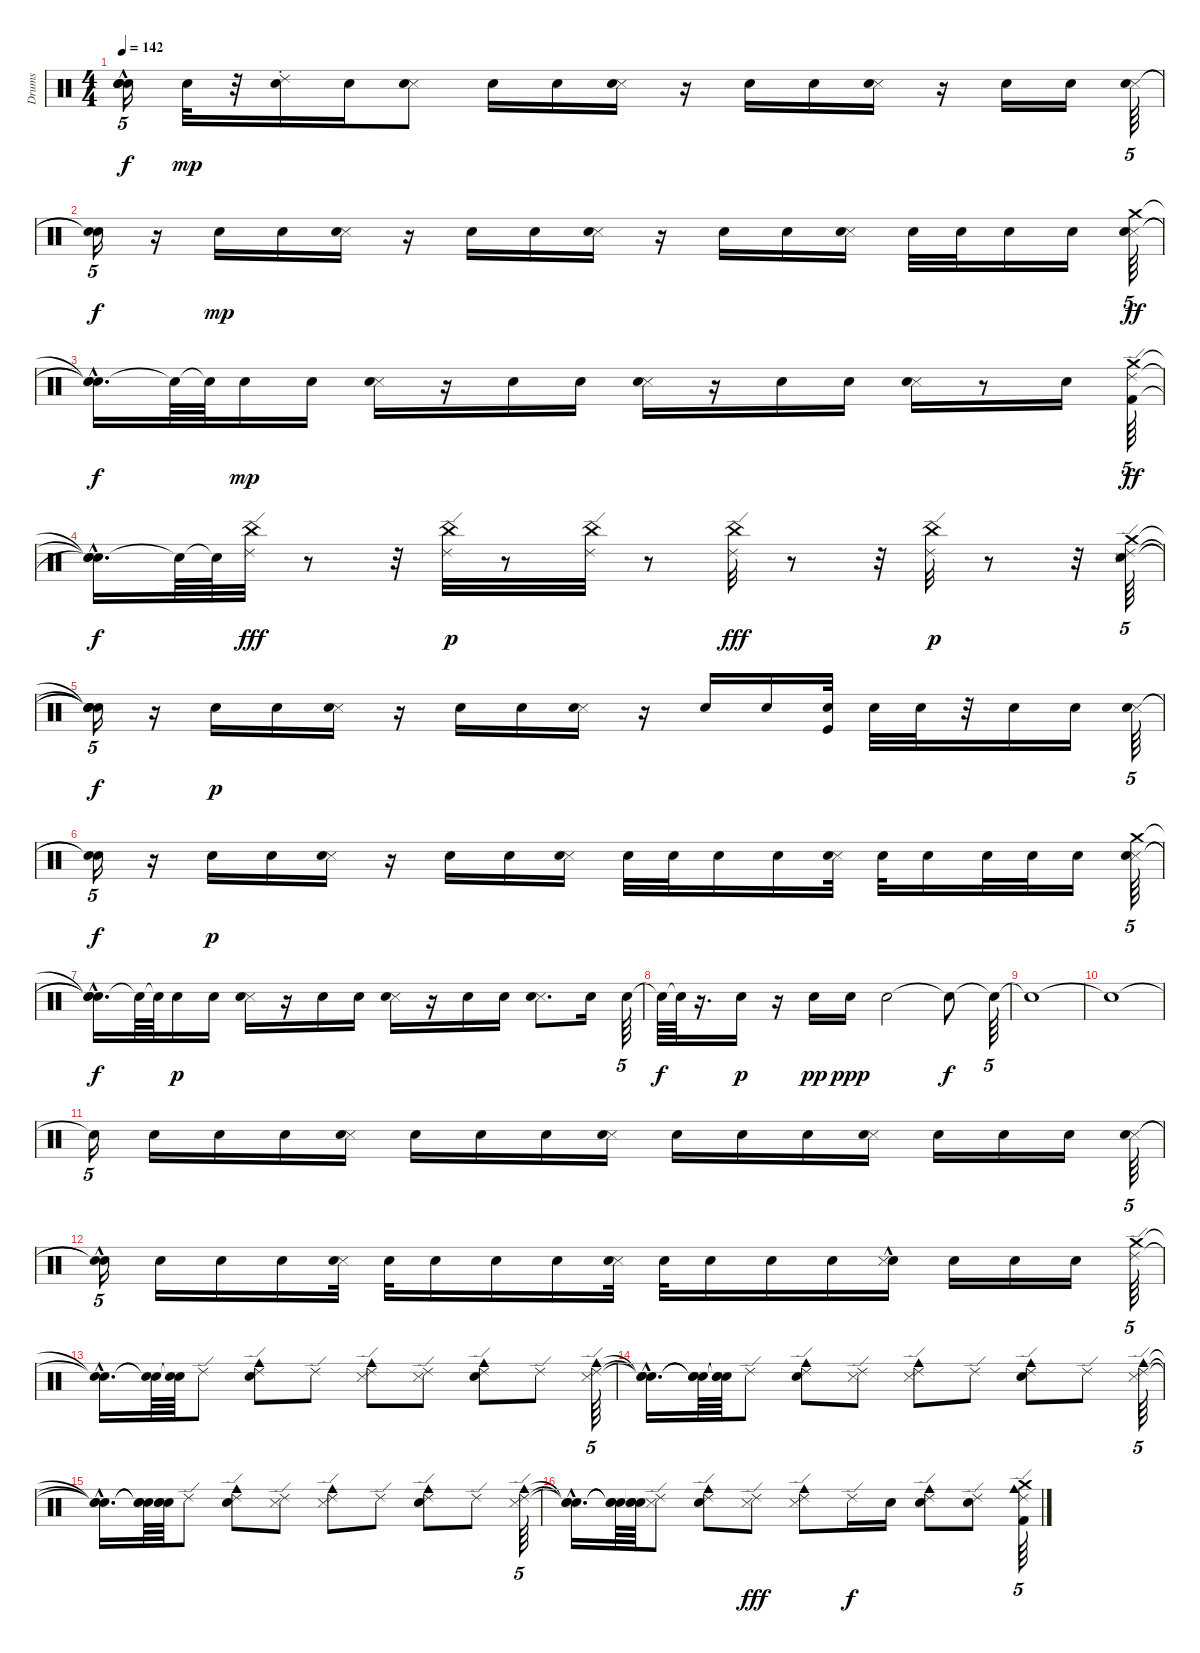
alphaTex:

\track ("Drums" "Drums") {instrument percussion}
\staff {score}
\articulation defaults
\ts (4 4)
\tempo 142
\clef neutral
\ks c
("Snare (hit)"{hac t} "Snare (hit)"{hac t} "Snare (hit)"{hac t} "Snare (hit)"{t}).16{tu (5 4) dy f} "Snare (hit) 2".32{dy mp} r.32 ("Snare (hit) 2" "Ride (choke) 2").16 "Snare (hit) 2".16 ("Metronome (hit)" "Snare (hit) 2").8 "Snare (hit) 2".16 "Snare (hit) 2".16 ("Metronome (hit)" "Snare (hit) 2").16 r.16 "Snare (hit) 2".16 "Snare (hit) 2".16 ("Metronome (hit)" "Snare (hit) 2").16 r.16 "Snare (hit) 2".16 "Snare (hit) 2".16 ("Metronome (hit)" "Snare (hit) 2").64{tu (5 4)} |
("Snare (hit)"{t} "Snare (hit)"{t}).16{tu (5 4) dy f} r.16 "Snare (hit) 2".16{dy mp} "Snare (hit) 2".16 ("Metronome (hit)" "Snare (hit) 2").16 r.16 "Snare (hit) 2".16 "Snare (hit) 2".16 ("Metronome (hit)" "Snare (hit) 2").16 r.16 "Snare (hit) 2".16 "Snare (hit) 2".16 ("Metronome (hit)" "Snare (hit) 2").16 "Snare (hit) 2".32 "Snare (hit) 2".32 "Snare (hit) 2".16 "Snare (hit) 2".16 ("Metronome (hit)" "Snare (hit) 2" "Crash medium (hit)").64{tu (5 4) dy ff} |
("Snare (hit)"{t} "Snare (hit)"{t} "Snare (hit)"{hac t}).16{d dy f} "Snare (hit)"{t}.64 "Snare (hit)"{t}.64 "Snare (hit) 2".16{dy mp} "Snare (hit) 2".16 ("Metronome (hit)" "Snare (hit) 2").16 r.16 "Snare (hit) 2".16 "Snare (hit) 2".16 ("Metronome (hit)" "Snare (hit) 2").16 r.16 "Snare (hit) 2".16 "Snare (hit) 2".16 ("Metronome (hit)" "Snare (hit) 2").16 r.8 "Snare (hit) 2".16 ("Crash medium (hit)" "Kick (hit) 2" "Ride (edge) 2").64{tu (5 4) dy ff} |
("Snare (hit)"{t} "Snare (hit)"{t} "Snare (hit)"{hac t}).16{d dy f} "Snare (hit)"{t}.64 "Snare (hit)"{t}.64 ("China (hit)" "Ride (edge) 2").32{dy fff} r.8 r.32 ("China (hit)" "Ride (edge) 2").32{dy p} r.8 ("China (hit)" "Ride (edge) 2").32 r.8 ("China (hit)" "Ride (edge) 2").32{dy fff} r.8 r.32 ("China (hit)" "Ride (edge) 2").32{dy p} r.8 r.32 ("Metronome (hit)" "Snare (hit) 2" "Crash medium (hit)" "Ride (edge) 2").64{tu (5 4)} |
("Snare (hit)"{t} "Snare (hit)"{t} "Snare (hit)"{t} "Snare (hit)"{t}).16{tu (5 4) dy f} r.16 "Snare (hit) 2".16{dy p} "Snare (hit) 2".16 ("Metronome (hit)" "Snare (hit) 2").16 r.16 "Snare (hit) 2".16 "Snare (hit) 2".16 ("Metronome (hit)" "Snare (hit) 2").16 r.16 "Snare (hit) 2".16 "Snare (hit) 2".16 ("Snare (hit) 2" "Kick (hit)").32 "Snare (hit) 2".32 "Snare (hit) 2".32 r.32 "Snare (hit) 2".16 "Snare (hit) 2".16 ("Metronome (hit)" "Snare (hit) 2").64{tu (5 4)} |
("Snare (hit)"{t} "Snare (hit)"{t}).16{tu (5 4) dy f} r.16 "Snare (hit) 2".16{dy p} "Snare (hit) 2".16 ("Metronome (hit)" "Snare (hit) 2").16 r.16 "Snare (hit) 2".16 "Snare (hit) 2".16 ("Metronome (hit)" "Snare (hit) 2").16 "Snare (hit) 2".32 "Snare (hit) 2".32 "Snare (hit) 2".16 "Snare (hit) 2".16 ("Metronome (hit)" "Snare (hit) 2").32 "Snare (hit) 2".32 "Snare (hit) 2".16 "Snare (hit) 2".32 "Snare (hit) 2".32 "Snare (hit) 2".16 ("Metronome (hit)" "Snare (hit) 2" "Crash medium (hit)").64{tu (5 4)} |
("Snare (hit)"{t} "Snare (hit)"{t} "Snare (hit)"{hac t}).16{d dy f} "Snare (hit)"{t}.64 "Snare (hit)"{t}.64 "Snare (hit) 2".16{dy p} "Snare (hit) 2".16 ("Metronome (hit)" "Snare (hit) 2").16 r.16 "Snare (hit) 2".16 "Snare (hit) 2".16 ("Metronome (hit)" "Snare (hit) 2").16 r.16 "Snare (hit) 2".16 "Snare (hit) 2".16 ("Metronome (hit)" "Snare (hit) 2").8{d} "Snare (hit) 2".16 "Snare (hit) 2".64{tu (5 4)} |
"Snare (hit)"{t}.64{dy f} "Snare (hit)"{t}.64 r.16{d} "Snare (hit) 2".16{dy p} r.16 "Snare (hit) 2".16{dy pp} "Snare (hit) 2".16{dy ppp} "Snare (hit) 2".2 "Snare (hit)"{t}.8{dy f} "Snare (hit)"{t}.64{tu (5 4)} |
"Snare (hit)"{t}.1 |
"Snare (hit)"{t}.1 |
"Snare (hit)"{t}.16{tu (5 4)} "Snare (hit) 2".16{volume 0} "Snare (hit) 2".16{volume 1} "Snare (hit) 2".16{volume 1} ("Metronome (hit)" "Snare (hit) 2").16{volume 2} "Snare (hit) 2".16{volume 2} "Snare (hit) 2".16{volume 3} "Snare (hit) 2".16{volume 3} ("Metronome (hit)" "Snare (hit) 2").16{volume 4} "Snare (hit) 2".16{volume 4} "Snare (hit) 2".16{volume 5} "Snare (hit) 2".16{volume 5} ("Metronome (hit)" "Snare (hit) 2").16{volume 6} "Snare (hit) 2".16{volume 6} "Snare (hit) 2".16{volume 7} "Snare (hit) 2".16{volume 7} ("Metronome (hit)" "Snare (hit) 2").64{tu (5 4) volume 8} |
("Snare (hit)"{hac t} "Snare (hit)"{t}).16{tu (5 4)} "Snare (hit) 2".16{volume 8} "Snare (hit) 2".16{volume 8} "Snare (hit) 2".16{volume 9} ("Metronome (hit)" "Snare (hit) 2").32{volume 10} "Snare (hit) 2".32{volume 10} "Snare (hit) 2".16{volume 10} "Snare (hit) 2".16{volume 10} "Snare (hit) 2".16{volume 11} ("Metronome (hit)" "Snare (hit) 2").32{volume 11} "Snare (hit) 2".32{volume 12} "Snare (hit) 2".16{volume 12} "Snare (hit) 2".16{volume 12} "Snare (hit) 2".16{volume 13} ("Snare (hit) 2" "Metronome (hit)"{hac}).16{volume 13} "Snare (hit) 2".16{volume 14} "Snare (hit) 2".16{volume 14} "Snare (hit) 2".16{volume 15} ("Crash medium (hit)" "Ride (edge) 2").64{tu (5 4) volume 15} |
("Snare (hit)"{hac t} "Snare (hit)"{hac t}).16{d} ("Snare (hit)"{t} "Snare (hit)"{t}).64 ("Snare (hit)"{t} "Snare (hit)"{t}).64 "Ride (edge) 2".8 ("Cowbell medium (hit)" "Ride (edge) 2" "Snare (hit) 2").8 "Ride (edge) 2".8 ("Cowbell medium (hit)" "Ride (edge) 2" "Metronome (hit)").8 ("Metronome (hit)" "Ride (edge) 2").8 ("Cowbell medium (hit)" "Ride (edge) 2" "Snare (hit) 2").8 "Ride (edge) 2".8 ("Metronome (hit)" "Cowbell medium (hit)" "Ride (edge) 2").64{tu (5 4)} |
("Snare (hit)"{hac t} "Snare (hit)"{hac t} "Snare (hit)"{hac t}).16{d} ("Snare (hit)"{t} "Snare (hit)"{t} "Snare (hit)"{t}).64 ("Snare (hit)"{t} "Snare (hit)"{t} "Snare (hit)"{t}).64 "Ride (edge) 2".8 ("Cowbell medium (hit)" "Ride (edge) 2" "Snare (hit) 2").8 ("Ride (edge) 2" "Metronome (hit)").8 ("Cowbell medium (hit)" "Ride (edge) 2" "Metronome (hit)").8 "Ride (edge) 2".8 ("Cowbell medium (hit)" "Ride (edge) 2" "Snare (hit) 2").8 "Ride (edge) 2".8 ("Metronome (hit)" "Cowbell medium (hit)" "Ride (edge) 2").64{tu (5 4)} |
("Snare (hit)"{hac t} "Snare (hit)"{hac t} "Snare (hit)"{hac t}).16{d} ("Snare (hit)"{t} "Snare (hit)"{t} "Snare (hit)"{t}).64 ("Snare (hit)"{t} "Snare (hit)"{t} "Snare (hit)"{t}).64 "Ride (edge) 2".8 ("Cowbell medium (hit)" "Ride (edge) 2" "Snare (hit) 2").8 ("Ride (edge) 2" "Metronome (hit)").8 ("Cowbell medium (hit)" "Ride (edge) 2" "Metronome (hit)").8 "Ride (edge) 2".8 ("Cowbell medium (hit)" "Ride (edge) 2" "Snare (hit) 2").8 "Ride (edge) 2".8 ("Metronome (hit)" "Cowbell medium (hit)" "Ride (edge) 2").64{tu (5 4)} |
("Snare (hit)"{hac t} "Snare (hit)"{hac t} "Snare (hit)"{hac t}).16{d} ("Snare (hit)"{t} "Snare (hit)"{t} "Snare (hit)"{t}).64 ("Snare (hit)"{t} "Snare (hit)"{t} "Snare (hit)"{t}).64 ("Metronome (hit)" "Ride (edge) 2").8 ("Cowbell medium (hit)" "Ride (edge) 2" "Snare (hit) 2").8 ("Ride (edge) 2" "Metronome (hit)").8{dy fff} ("Cowbell medium (hit)" "Ride (edge) 2" "Metronome (hit)").8 "Ride (edge) 2".16{dy f} "Snare (hit) 2".16 ("Snare (hit) 2" "Cowbell medium (hit)" "Ride (edge) 2").8 ("Snare (hit) 2" "Ride (edge) 2").8 ("Crash medium (hit)" "Cowbell medium (hit)" "Ride (edge) 2" "Kick (hit) 2").64{tu (5 4)}
